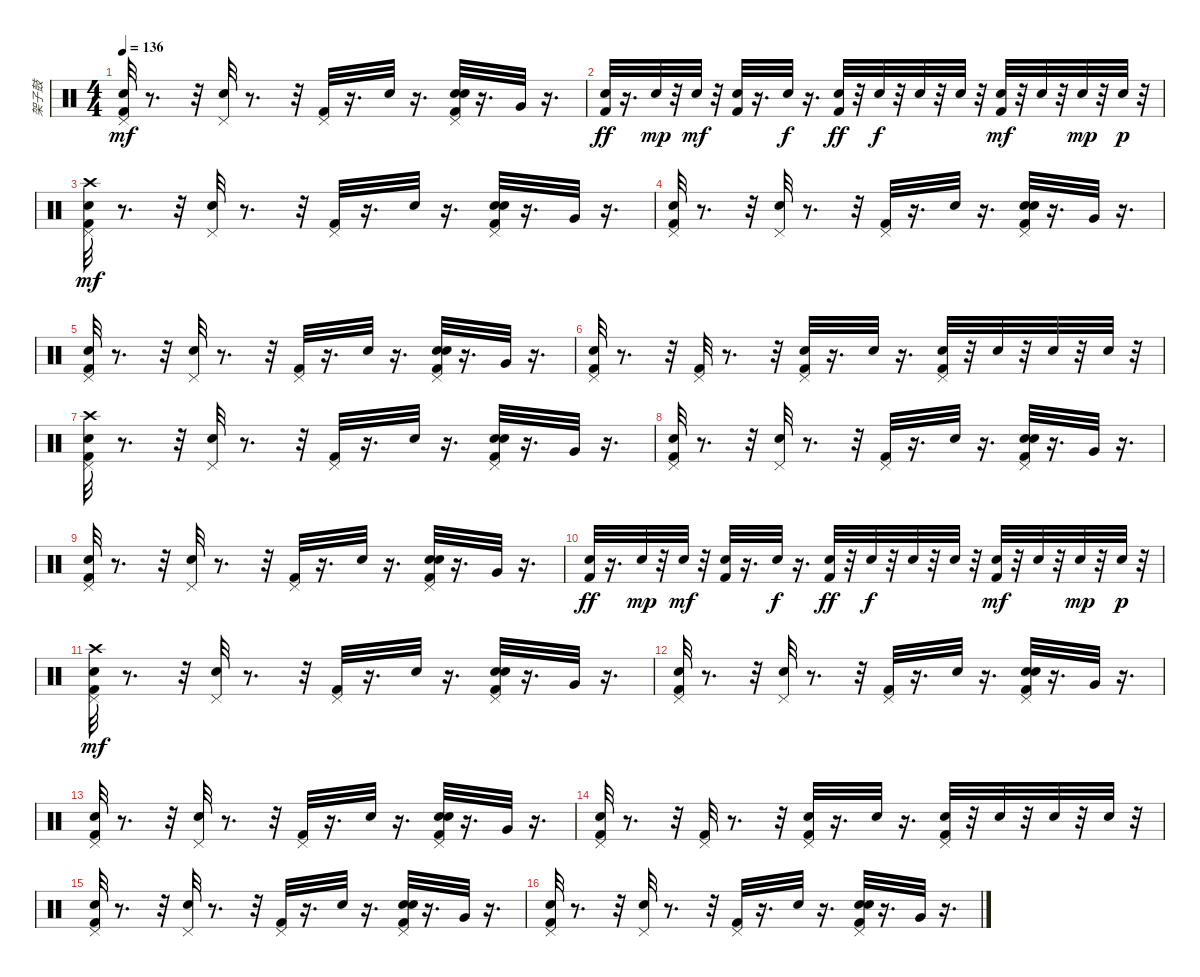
\track ("架子鼓" "架子鼓") {instrument percussion}
\staff {score}
\articulation defaults
\ts (4 4)
\tempo 136
\clef neutral
\ks c
("Pedal Hi-Hat (hit)" "Kick (hit) 2" "Metronome (bell)").32{dy mf} r.8{d} r.32 ("Pedal Hi-Hat (hit)" "Metronome (bell)").32 r.8{d} r.32 ("Pedal Hi-Hat (hit)" "Kick (hit) 2").32 r.16{d} "Metronome (bell)".32 r.16{d} ("Pedal Hi-Hat (hit)" "Electric Snare (hit)" "Kick (hit) 2" "Metronome (bell)").32 r.16{d} "Very Low Tom (hit)".32 r.16{d} |
("Metronome (bell)" "Kick (hit) 2").32{dy ff} r.16{d} "Metronome (bell)".32{dy mp} r.32 "Metronome (bell)".32{dy mf} r.32 ("Metronome (bell)" "Kick (hit) 2").32 r.16{d} "Metronome (bell)".32{dy f} r.16{d} ("Kick (hit) 2" "Metronome (bell)").32{dy ff} r.32 "Metronome (bell)".32{dy f} r.32 "Metronome (bell)".32 r.32 "Metronome (bell)".32 r.32 ("Kick (hit) 2" "Metronome (bell)").32{dy mf} r.32 "Metronome (bell)".32 r.32 "Metronome (bell)".32{dy mp} r.32 "Metronome (bell)".32{dy p} r.32 |
("Pedal Hi-Hat (hit)" "Kick (hit) 2" "Metronome (bell)" "Crash high (hit)").32{dy mf} r.8{d} r.32 ("Pedal Hi-Hat (hit)" "Metronome (bell)").32 r.8{d} r.32 ("Pedal Hi-Hat (hit)" "Kick (hit) 2").32 r.16{d} "Metronome (bell)".32 r.16{d} ("Pedal Hi-Hat (hit)" "Electric Snare (hit)" "Kick (hit) 2" "Metronome (bell)").32 r.16{d} "Very Low Tom (hit)".32 r.16{d} |
("Pedal Hi-Hat (hit)" "Kick (hit) 2" "Metronome (bell)").32 r.8{d} r.32 ("Pedal Hi-Hat (hit)" "Metronome (bell)").32 r.8{d} r.32 ("Pedal Hi-Hat (hit)" "Kick (hit) 2").32 r.16{d} "Metronome (bell)".32 r.16{d} ("Pedal Hi-Hat (hit)" "Electric Snare (hit)" "Kick (hit) 2" "Metronome (bell)").32 r.16{d} "Very Low Tom (hit)".32 r.16{d} |
("Pedal Hi-Hat (hit)" "Kick (hit) 2" "Metronome (bell)").32 r.8{d} r.32 ("Pedal Hi-Hat (hit)" "Metronome (bell)").32 r.8{d} r.32 ("Pedal Hi-Hat (hit)" "Kick (hit) 2").32 r.16{d} "Metronome (bell)".32 r.16{d} ("Pedal Hi-Hat (hit)" "Electric Snare (hit)" "Kick (hit) 2" "Metronome (bell)").32 r.16{d} "Very Low Tom (hit)".32 r.16{d} |
("Pedal Hi-Hat (hit)" "Kick (hit) 2" "Metronome (bell)").32 r.8{d} r.32 ("Pedal Hi-Hat (hit)" "Kick (hit) 2").32 r.8{d} r.32 ("Pedal Hi-Hat (hit)" "Kick (hit) 2" "Metronome (bell)").32 r.16{d} "Metronome (bell)".32 r.16{d} ("Pedal Hi-Hat (hit)" "Kick (hit) 2" "Metronome (bell)").32 r.32 "Metronome (bell)".32 r.32 "Metronome (bell)".32 r.32 "Metronome (bell)".32 r.32 |
("Pedal Hi-Hat (hit)" "Kick (hit) 2" "Metronome (bell)" "Crash high (hit)").32 r.8{d} r.32 ("Pedal Hi-Hat (hit)" "Metronome (bell)").32 r.8{d} r.32 ("Pedal Hi-Hat (hit)" "Kick (hit) 2").32 r.16{d} "Metronome (bell)".32 r.16{d} ("Pedal Hi-Hat (hit)" "Electric Snare (hit)" "Kick (hit) 2" "Metronome (bell)").32 r.16{d} "Very Low Tom (hit)".32 r.16{d} |
("Pedal Hi-Hat (hit)" "Kick (hit) 2" "Metronome (bell)").32 r.8{d} r.32 ("Pedal Hi-Hat (hit)" "Metronome (bell)").32 r.8{d} r.32 ("Pedal Hi-Hat (hit)" "Kick (hit) 2").32 r.16{d} "Metronome (bell)".32 r.16{d} ("Pedal Hi-Hat (hit)" "Electric Snare (hit)" "Kick (hit) 2" "Metronome (bell)").32 r.16{d} "Very Low Tom (hit)".32 r.16{d} |
("Pedal Hi-Hat (hit)" "Kick (hit) 2" "Metronome (bell)").32 r.8{d} r.32 ("Pedal Hi-Hat (hit)" "Metronome (bell)").32 r.8{d} r.32 ("Pedal Hi-Hat (hit)" "Kick (hit) 2").32 r.16{d} "Metronome (bell)".32 r.16{d} ("Pedal Hi-Hat (hit)" "Electric Snare (hit)" "Kick (hit) 2" "Metronome (bell)").32 r.16{d} "Very Low Tom (hit)".32 r.16{d} |
("Metronome (bell)" "Kick (hit) 2").32{dy ff} r.16{d} "Metronome (bell)".32{dy mp} r.32 "Metronome (bell)".32{dy mf} r.32 ("Metronome (bell)" "Kick (hit) 2").32 r.16{d} "Metronome (bell)".32{dy f} r.16{d} ("Kick (hit) 2" "Metronome (bell)").32{dy ff} r.32 "Metronome (bell)".32{dy f} r.32 "Metronome (bell)".32 r.32 "Metronome (bell)".32 r.32 ("Kick (hit) 2" "Metronome (bell)").32{dy mf} r.32 "Metronome (bell)".32 r.32 "Metronome (bell)".32{dy mp} r.32 "Metronome (bell)".32{dy p} r.32 |
("Pedal Hi-Hat (hit)" "Kick (hit) 2" "Metronome (bell)" "Crash high (hit)").32{dy mf} r.8{d} r.32 ("Pedal Hi-Hat (hit)" "Metronome (bell)").32 r.8{d} r.32 ("Pedal Hi-Hat (hit)" "Kick (hit) 2").32 r.16{d} "Metronome (bell)".32 r.16{d} ("Pedal Hi-Hat (hit)" "Electric Snare (hit)" "Kick (hit) 2" "Metronome (bell)").32 r.16{d} "Very Low Tom (hit)".32 r.16{d} |
("Pedal Hi-Hat (hit)" "Kick (hit) 2" "Metronome (bell)").32 r.8{d} r.32 ("Pedal Hi-Hat (hit)" "Metronome (bell)").32 r.8{d} r.32 ("Pedal Hi-Hat (hit)" "Kick (hit) 2").32 r.16{d} "Metronome (bell)".32 r.16{d} ("Pedal Hi-Hat (hit)" "Electric Snare (hit)" "Kick (hit) 2" "Metronome (bell)").32 r.16{d} "Very Low Tom (hit)".32 r.16{d} |
("Pedal Hi-Hat (hit)" "Kick (hit) 2" "Metronome (bell)").32 r.8{d} r.32 ("Pedal Hi-Hat (hit)" "Metronome (bell)").32 r.8{d} r.32 ("Pedal Hi-Hat (hit)" "Kick (hit) 2").32 r.16{d} "Metronome (bell)".32 r.16{d} ("Pedal Hi-Hat (hit)" "Electric Snare (hit)" "Kick (hit) 2" "Metronome (bell)").32 r.16{d} "Very Low Tom (hit)".32 r.16{d} |
("Pedal Hi-Hat (hit)" "Kick (hit) 2" "Metronome (bell)").32 r.8{d} r.32 ("Pedal Hi-Hat (hit)" "Kick (hit) 2").32 r.8{d} r.32 ("Pedal Hi-Hat (hit)" "Kick (hit) 2" "Metronome (bell)").32 r.16{d} "Metronome (bell)".32 r.16{d} ("Pedal Hi-Hat (hit)" "Kick (hit) 2" "Metronome (bell)").32 r.32 "Metronome (bell)".32 r.32 "Metronome (bell)".32 r.32 "Metronome (bell)".32 r.32 |
("Pedal Hi-Hat (hit)" "Kick (hit) 2" "Metronome (bell)").32 r.8{d} r.32 ("Pedal Hi-Hat (hit)" "Metronome (bell)").32 r.8{d} r.32 ("Pedal Hi-Hat (hit)" "Kick (hit) 2").32 r.16{d} "Metronome (bell)".32 r.16{d} ("Pedal Hi-Hat (hit)" "Electric Snare (hit)" "Kick (hit) 2" "Metronome (bell)").32 r.16{d} "Very Low Tom (hit)".32 r.16{d} |
("Pedal Hi-Hat (hit)" "Kick (hit) 2" "Metronome (bell)").32 r.8{d} r.32 ("Pedal Hi-Hat (hit)" "Metronome (bell)").32 r.8{d} r.32 ("Pedal Hi-Hat (hit)" "Kick (hit) 2").32 r.16{d} "Metronome (bell)".32 r.16{d} ("Pedal Hi-Hat (hit)" "Electric Snare (hit)" "Kick (hit) 2" "Metronome (bell)").32 r.16{d} "Very Low Tom (hit)".32 r.16{d}
